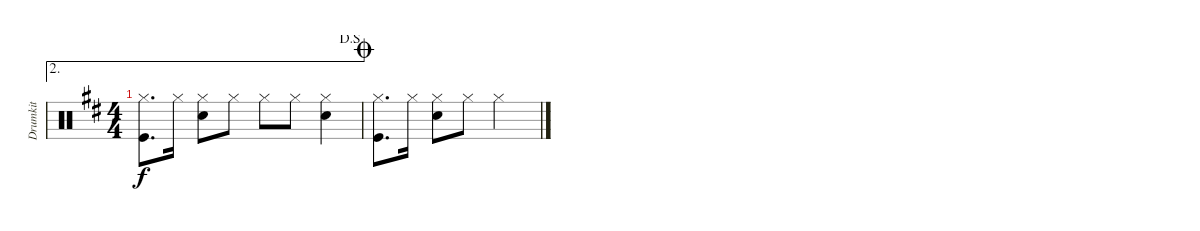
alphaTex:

\bracketExtendMode groupsimilarinstruments
\multiTrackTrackNamePolicy hidden
\firstSystemTrackNameMode fullname
\otherSystemsTrackNameMode fullname
\otherSystemsTrackNameOrientation horizontal
\defaultBarNumberDisplay FirstOfSystem
\track ("Drumkit" "Drums") {instrument percussion}
\staff {score}
\articulation defaults
\ae 2
\ts (4 4)
\jump dalsegno
\tempo (90 hide)
\clef neutral
\ks d
("Hi-Hat (closed)" "Kick (hit)").8{d dy f} "Hi-Hat (closed)".16 ("Hi-Hat (closed)" "Snare (hit) 2").8 "Hi-Hat (closed)".8 "Hi-Hat (closed)".8 "Hi-Hat (closed)".8 ("Hi-Hat (closed)" "Snare (hit) 2").4 |
\jump coda
("Hi-Hat (closed)" "Kick (hit)").8{d} "Hi-Hat (closed)".16 ("Hi-Hat (closed)" "Snare (hit) 2").8 "Hi-Hat (closed)".8 "Hi-Hat (closed)".2
